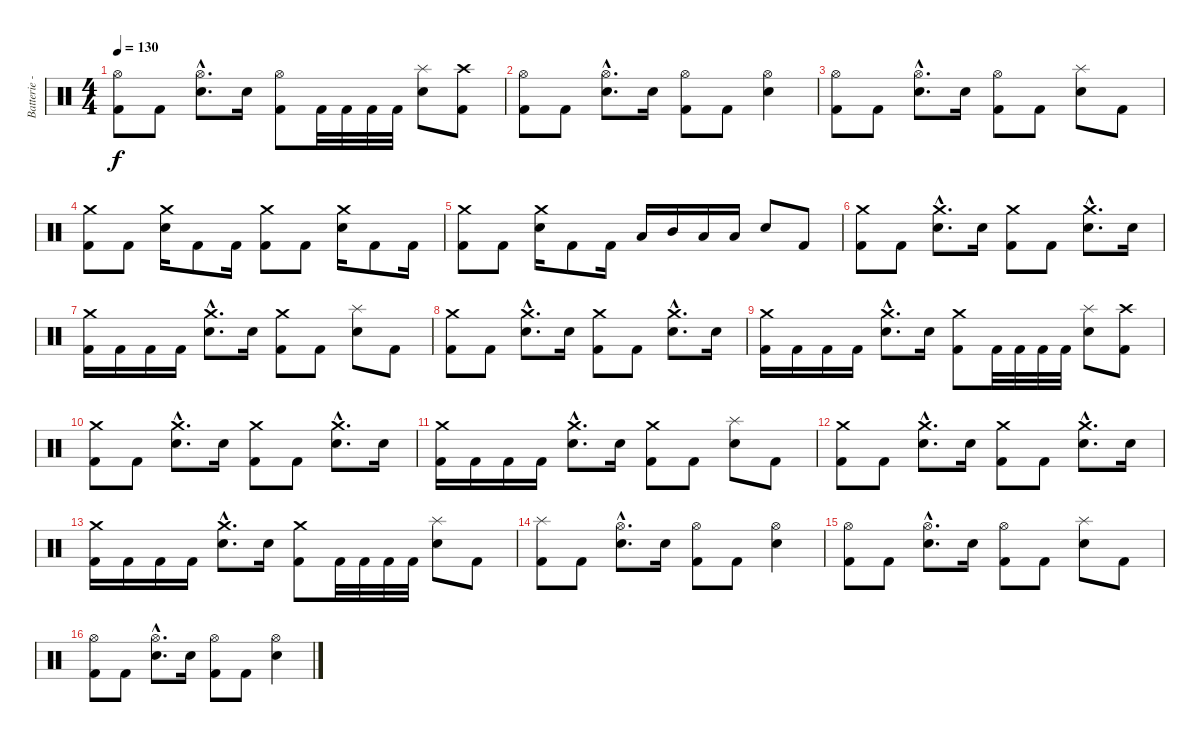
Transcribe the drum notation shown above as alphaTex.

\track ("Batterie - Anton" "Batterie -") {instrument percussion}
\staff {score}
\articulation defaults
\ts (4 4)
\tempo 130
\clef neutral
\ks c
("Hi-Hat (open)" "Kick (hit) 2").8{dy f} "Kick (hit) 2".8 ("Hi-Hat (open)"{hac} "Electric Snare (hit)"{hac}).8{d} "Electric Snare (hit)".16 ("Hi-Hat (open)" "Kick (hit) 2").8 "Kick (hit) 2".32 "Kick (hit) 2".32 "Kick (hit) 2".32 "Kick (hit) 2".32 ("Splash (hit)" "Electric Snare (hit)").8 ("Crash high (hit)" "Kick (hit) 2").8 |
("Hi-Hat (open)" "Kick (hit) 2").8 "Kick (hit) 2".8 ("Hi-Hat (open)"{hac} "Electric Snare (hit)"{hac}).8{d} "Electric Snare (hit)".16 ("Hi-Hat (open)" "Kick (hit) 2").8 "Kick (hit) 2".8 ("Hi-Hat (open)" "Electric Snare (hit)").4 |
("Hi-Hat (open)" "Kick (hit) 2").8 "Kick (hit) 2".8 ("Hi-Hat (open)"{hac} "Electric Snare (hit)"{hac}).8{d} "Electric Snare (hit)".16 ("Hi-Hat (open)" "Kick (hit) 2").8 "Kick (hit) 2".8 ("Splash (hit)" "Electric Snare (hit)").8 "Kick (hit) 2".8 |
("Crash medium (hit)" "Kick (hit) 2").8 "Kick (hit) 2".8 ("Crash medium (hit)" "Electric Snare (hit)").16 "Kick (hit) 2".8 "Kick (hit) 2".16 ("Crash medium (hit)" "Kick (hit) 2").8 "Kick (hit) 2".8 ("Crash medium (hit)" "Electric Snare (hit)").16 "Kick (hit) 2".8 "Kick (hit) 2".16 |
("Crash medium (hit)" "Kick (hit) 2").8 "Kick (hit) 2".8 ("Crash medium (hit)" "Electric Snare (hit)").16 "Kick (hit) 2".8 "Kick (hit) 2".16 "Low Tom (hit)".16 "Mid Tom (hit)".16 "Low Tom (hit)".16 "Low Tom (hit)".16 "Electric Snare (hit)".8 "Kick (hit) 2".8 |
("Crash medium (hit)" "Kick (hit) 2").8 "Kick (hit) 2".8 ("Crash medium (hit)"{hac} "Electric Snare (hit)"{hac}).8{d} "Electric Snare (hit)".16 ("Crash medium (hit)" "Kick (hit) 2").8 "Kick (hit) 2".8 ("Crash medium (hit)"{hac} "Electric Snare (hit)"{hac}).8{d} "Electric Snare (hit)".16 |
("Crash medium (hit)" "Kick (hit) 2").16 "Kick (hit) 2".16 "Kick (hit) 2".16 "Kick (hit) 2".16 ("Crash medium (hit)"{hac} "Electric Snare (hit)"{hac}).8{d} "Electric Snare (hit)".16 ("Crash medium (hit)" "Kick (hit) 2").8 "Kick (hit) 2".8 ("Splash (hit)" "Electric Snare (hit)").8 "Kick (hit) 2".8 |
("Crash medium (hit)" "Kick (hit) 2").8 "Kick (hit) 2".8 ("Crash medium (hit)"{hac} "Electric Snare (hit)"{hac}).8{d} "Electric Snare (hit)".16 ("Crash medium (hit)" "Kick (hit) 2").8 "Kick (hit) 2".8 ("Crash medium (hit)"{hac} "Electric Snare (hit)"{hac}).8{d} "Electric Snare (hit)".16 |
("Crash medium (hit)" "Kick (hit) 2").16 "Kick (hit) 2".16 "Kick (hit) 2".16 "Kick (hit) 2".16 ("Crash medium (hit)"{hac} "Electric Snare (hit)"{hac}).8{d} "Electric Snare (hit)".16 ("Crash medium (hit)" "Kick (hit) 2").8 "Kick (hit) 2".32 "Kick (hit) 2".32 "Kick (hit) 2".32 "Kick (hit) 2".32 ("Splash (hit)" "Electric Snare (hit)").8 ("Crash high (hit)" "Kick (hit) 2").8 |
("Crash medium (hit)" "Kick (hit) 2").8 "Kick (hit) 2".8 ("Crash medium (hit)"{hac} "Electric Snare (hit)"{hac}).8{d} "Electric Snare (hit)".16 ("Crash medium (hit)" "Kick (hit) 2").8 "Kick (hit) 2".8 ("Crash medium (hit)"{hac} "Electric Snare (hit)"{hac}).8{d} "Electric Snare (hit)".16 |
("Crash medium (hit)" "Kick (hit) 2").16 "Kick (hit) 2".16 "Kick (hit) 2".16 "Kick (hit) 2".16 ("Crash medium (hit)"{hac} "Electric Snare (hit)"{hac}).8{d} "Electric Snare (hit)".16 ("Crash medium (hit)" "Kick (hit) 2").8 "Kick (hit) 2".8 ("Splash (hit)" "Electric Snare (hit)").8 "Kick (hit) 2".8 |
("Crash medium (hit)" "Kick (hit) 2").8 "Kick (hit) 2".8 ("Crash medium (hit)"{hac} "Electric Snare (hit)"{hac}).8{d} "Electric Snare (hit)".16 ("Crash medium (hit)" "Kick (hit) 2").8 "Kick (hit) 2".8 ("Crash medium (hit)"{hac} "Electric Snare (hit)"{hac}).8{d} "Electric Snare (hit)".16 |
("Crash medium (hit)" "Kick (hit) 2").16 "Kick (hit) 2".16 "Kick (hit) 2".16 "Kick (hit) 2".16 ("Crash medium (hit)"{hac} "Electric Snare (hit)"{hac}).8{d} "Electric Snare (hit)".16 ("Crash medium (hit)" "Kick (hit) 2").8 "Kick (hit) 2".32 "Kick (hit) 2".32 "Kick (hit) 2".32 "Kick (hit) 2".32 ("Splash (hit)" "Electric Snare (hit)").8 "Kick (hit) 2".8 |
("Splash (hit)" "Kick (hit) 2").8 "Kick (hit) 2".8 ("Hi-Hat (open)"{hac} "Electric Snare (hit)"{hac}).8{d} "Electric Snare (hit)".16 ("Hi-Hat (open)" "Kick (hit) 2").8 "Kick (hit) 2".8 ("Hi-Hat (open)" "Electric Snare (hit)").4 |
("Hi-Hat (open)" "Kick (hit) 2").8 "Kick (hit) 2".8 ("Hi-Hat (open)"{hac} "Electric Snare (hit)"{hac}).8{d} "Electric Snare (hit)".16 ("Hi-Hat (open)" "Kick (hit) 2").8 "Kick (hit) 2".8 ("Splash (hit)" "Electric Snare (hit)").8 "Kick (hit) 2".8 |
("Hi-Hat (open)" "Kick (hit) 2").8 "Kick (hit) 2".8 ("Hi-Hat (open)"{hac} "Electric Snare (hit)"{hac}).8{d} "Electric Snare (hit)".16 ("Hi-Hat (open)" "Kick (hit) 2").8 "Kick (hit) 2".8 ("Hi-Hat (open)" "Electric Snare (hit)").4
